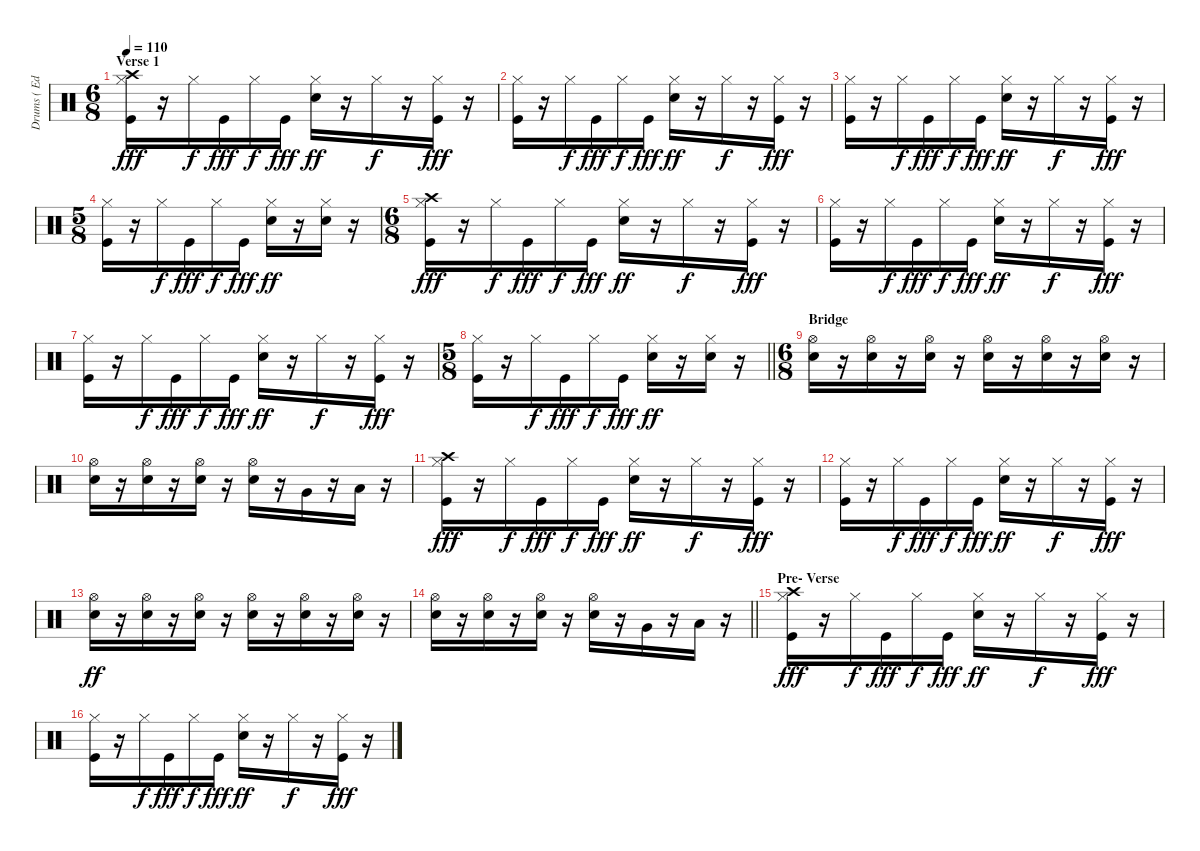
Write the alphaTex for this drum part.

\track ("Drums ( Edward O'Brien )" "Drums ( Ed") {instrument percussion}
\staff {score}
\articulation defaults
\ts (6 8)
\section ("" "Verse 1")
\tempo 110
\clef neutral
\ks c
("Crash high (hit)" "Hi-Hat (closed)" "Kick (hit)").16{dy fff} r.16 "Hi-Hat (closed)".16{dy f} "Kick (hit)".16{dy fff} "Hi-Hat (closed)".16{dy f} "Kick (hit)".16{dy fff} ("Hi-Hat (closed)" "Electric Snare (hit)").16{dy ff} r.16 "Hi-Hat (closed)".16{dy f} r.16 ("Hi-Hat (closed)" "Kick (hit)").16{dy fff} r.16 |
("Hi-Hat (closed)" "Kick (hit)").16 r.16 "Hi-Hat (closed)".16{dy f} "Kick (hit)".16{dy fff} "Hi-Hat (closed)".16{dy f} "Kick (hit)".16{dy fff} ("Hi-Hat (closed)" "Electric Snare (hit)").16{dy ff} r.16 "Hi-Hat (closed)".16{dy f} r.16 ("Hi-Hat (closed)" "Kick (hit)").16{dy fff} r.16 |
("Hi-Hat (closed)" "Kick (hit)").16 r.16 "Hi-Hat (closed)".16{dy f} "Kick (hit)".16{dy fff} "Hi-Hat (closed)".16{dy f} "Kick (hit)".16{dy fff} ("Hi-Hat (closed)" "Electric Snare (hit)").16{dy ff} r.16 "Hi-Hat (closed)".16{dy f} r.16 ("Hi-Hat (closed)" "Kick (hit)").16{dy fff} r.16 |
\ts (5 8)
("Hi-Hat (closed)" "Kick (hit)").16 r.16 "Hi-Hat (closed)".16{dy f} "Kick (hit)".16{dy fff} "Hi-Hat (closed)".16{dy f} "Kick (hit)".16{dy fff} ("Hi-Hat (closed)" "Electric Snare (hit)").16{dy ff} r.16 ("Hi-Hat (closed)" "Electric Snare (hit)").16 r.16 |
\ts (6 8)
("Crash high (hit)" "Hi-Hat (closed)" "Kick (hit)").16{dy fff} r.16 "Hi-Hat (closed)".16{dy f} "Kick (hit)".16{dy fff} "Hi-Hat (closed)".16{dy f} "Kick (hit)".16{dy fff} ("Hi-Hat (closed)" "Electric Snare (hit)").16{dy ff} r.16 "Hi-Hat (closed)".16{dy f} r.16 ("Hi-Hat (closed)" "Kick (hit)").16{dy fff} r.16 |
("Hi-Hat (closed)" "Kick (hit)").16 r.16 "Hi-Hat (closed)".16{dy f} "Kick (hit)".16{dy fff} "Hi-Hat (closed)".16{dy f} "Kick (hit)".16{dy fff} ("Hi-Hat (closed)" "Electric Snare (hit)").16{dy ff} r.16 "Hi-Hat (closed)".16{dy f} r.16 ("Hi-Hat (closed)" "Kick (hit)").16{dy fff} r.16 |
("Hi-Hat (closed)" "Kick (hit)").16 r.16 "Hi-Hat (closed)".16{dy f} "Kick (hit)".16{dy fff} "Hi-Hat (closed)".16{dy f} "Kick (hit)".16{dy fff} ("Hi-Hat (closed)" "Electric Snare (hit)").16{dy ff} r.16 "Hi-Hat (closed)".16{dy f} r.16 ("Hi-Hat (closed)" "Kick (hit)").16{dy fff} r.16 |
\ts (5 8)
\barLineRight lightlight
("Hi-Hat (closed)" "Kick (hit)").16 r.16 "Hi-Hat (closed)".16{dy f} "Kick (hit)".16{dy fff} "Hi-Hat (closed)".16{dy f} "Kick (hit)".16{dy fff} ("Hi-Hat (closed)" "Electric Snare (hit)").16{dy ff} r.16 ("Hi-Hat (closed)" "Electric Snare (hit)").16 r.16 |
\ts (6 8)
\section ("" "Bridge")
("Hi-Hat (open)" "Electric Snare (hit)").16 r.16 ("Hi-Hat (open)" "Electric Snare (hit)").16 r.16 ("Hi-Hat (open)" "Electric Snare (hit)").16 r.16 ("Hi-Hat (open)" "Electric Snare (hit)").16 r.16 ("Hi-Hat (open)" "Electric Snare (hit)").16 r.16 ("Hi-Hat (open)" "Electric Snare (hit)").16 r.16 |
("Hi-Hat (open)" "Electric Snare (hit)").16 r.16 ("Hi-Hat (open)" "Electric Snare (hit)").16 r.16 ("Hi-Hat (open)" "Electric Snare (hit)").16 r.16 ("Hi-Hat (open)" "Electric Snare (hit)").16 r.16 "Very Low Tom (hit)".16 r.16 "Low Floor Tom (hit)".16 r.16 |
("Crash high (hit)" "Hi-Hat (closed)" "Kick (hit)").16{dy fff} r.16 "Hi-Hat (closed)".16{dy f} "Kick (hit)".16{dy fff} "Hi-Hat (closed)".16{dy f} "Kick (hit)".16{dy fff} ("Hi-Hat (closed)" "Electric Snare (hit)").16{dy ff} r.16 "Hi-Hat (closed)".16{dy f} r.16 ("Hi-Hat (closed)" "Kick (hit)").16{dy fff} r.16 |
("Hi-Hat (closed)" "Kick (hit)").16 r.16 "Hi-Hat (closed)".16{dy f} "Kick (hit)".16{dy fff} "Hi-Hat (closed)".16{dy f} "Kick (hit)".16{dy fff} ("Hi-Hat (closed)" "Electric Snare (hit)").16{dy ff} r.16 "Hi-Hat (closed)".16{dy f} r.16 ("Hi-Hat (closed)" "Kick (hit)").16{dy fff} r.16 |
("Hi-Hat (open)" "Electric Snare (hit)").16{dy ff} r.16 ("Hi-Hat (open)" "Electric Snare (hit)").16 r.16 ("Hi-Hat (open)" "Electric Snare (hit)").16 r.16 ("Hi-Hat (open)" "Electric Snare (hit)").16 r.16 ("Hi-Hat (open)" "Electric Snare (hit)").16 r.16 ("Hi-Hat (open)" "Electric Snare (hit)").16 r.16 |
\barLineRight lightlight
("Hi-Hat (open)" "Electric Snare (hit)").16 r.16 ("Hi-Hat (open)" "Electric Snare (hit)").16 r.16 ("Hi-Hat (open)" "Electric Snare (hit)").16 r.16 ("Hi-Hat (open)" "Electric Snare (hit)").16 r.16 "Very Low Tom (hit)".16 r.16 "Low Floor Tom (hit)".16 r.16 |
\section ("" "Pre- Verse")
("Crash high (hit)" "Hi-Hat (closed)" "Kick (hit)").16{dy fff} r.16 "Hi-Hat (closed)".16{dy f} "Kick (hit)".16{dy fff} "Hi-Hat (closed)".16{dy f} "Kick (hit)".16{dy fff} ("Hi-Hat (closed)" "Electric Snare (hit)").16{dy ff} r.16 "Hi-Hat (closed)".16{dy f} r.16 ("Hi-Hat (closed)" "Kick (hit)").16{dy fff} r.16 |
("Hi-Hat (closed)" "Kick (hit)").16 r.16 "Hi-Hat (closed)".16{dy f} "Kick (hit)".16{dy fff} "Hi-Hat (closed)".16{dy f} "Kick (hit)".16{dy fff} ("Hi-Hat (closed)" "Electric Snare (hit)").16{dy ff} r.16 "Hi-Hat (closed)".16{dy f} r.16 ("Hi-Hat (closed)" "Kick (hit)").16{dy fff} r.16
